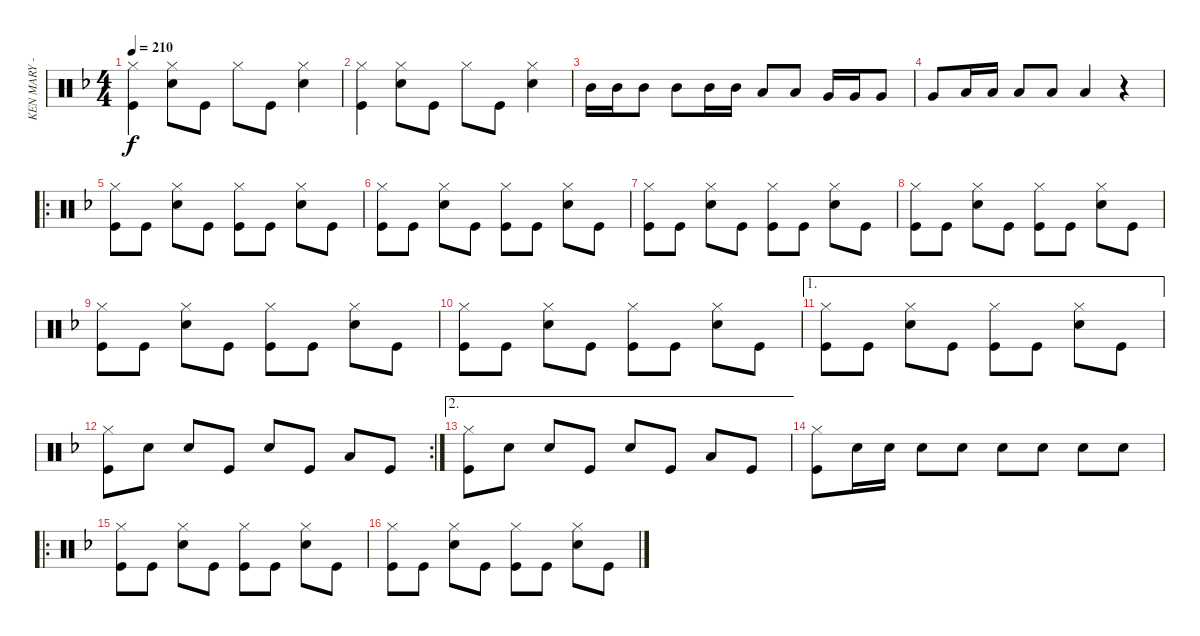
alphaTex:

\track ("KEN MARY - DRUMS" "KEN MARY -") {instrument percussion}
\staff {score}
\articulation defaults
\ts (4 4)
\tempo 210
\clef neutral
\ks f
("Hi-Hat (closed)" "Kick (hit)").4{dy f} ("Hi-Hat (closed)" "Snare (hit) 2").8 "Kick (hit)".8 "Hi-Hat (closed)".8 "Kick (hit)".8 ("Hi-Hat (closed)" "Snare (hit) 2").4 |
("Hi-Hat (closed)" "Kick (hit)").4 ("Hi-Hat (closed)" "Snare (hit) 2").8 "Kick (hit)".8 "Hi-Hat (closed)".8 "Kick (hit)".8 ("Hi-Hat (closed)" "Snare (hit) 2").4 |
"Mid Tom (hit)".16 "Mid Tom (hit)".16 "Mid Tom (hit)".8 "Mid Tom (hit)".8 "Mid Tom (hit)".16 "Mid Tom (hit)".16 "Low Tom (hit)".8 "Low Tom (hit)".8 "Very Low Tom (hit)".16 "Very Low Tom (hit)".16 "Very Low Tom (hit)".8 |
"Very Low Tom (hit)".8 "Low Floor Tom (hit)".16 "Low Floor Tom (hit)".16 "Low Floor Tom (hit)".8 "Low Floor Tom (hit)".8 "Low Floor Tom (hit)".4 r.4 |
\ro
("Hi-Hat (closed)" "Kick (hit)").8 "Kick (hit)".8 ("Hi-Hat (closed)" "Snare (hit) 2").8 "Kick (hit)".8 ("Hi-Hat (closed)" "Kick (hit)").8 "Kick (hit)".8 ("Hi-Hat (closed)" "Snare (hit) 2").8 "Kick (hit)".8 |
("Hi-Hat (closed)" "Kick (hit)").8 "Kick (hit)".8 ("Hi-Hat (closed)" "Snare (hit) 2").8 "Kick (hit)".8 ("Hi-Hat (closed)" "Kick (hit)").8 "Kick (hit)".8 ("Hi-Hat (closed)" "Snare (hit) 2").8 "Kick (hit)".8 |
("Hi-Hat (closed)" "Kick (hit)").8 "Kick (hit)".8 ("Hi-Hat (closed)" "Snare (hit) 2").8 "Kick (hit)".8 ("Hi-Hat (closed)" "Kick (hit)").8 "Kick (hit)".8 ("Hi-Hat (closed)" "Snare (hit) 2").8 "Kick (hit)".8 |
("Hi-Hat (closed)" "Kick (hit)").8 "Kick (hit)".8 ("Hi-Hat (closed)" "Snare (hit) 2").8 "Kick (hit)".8 ("Hi-Hat (closed)" "Kick (hit)").8 "Kick (hit)".8 ("Hi-Hat (closed)" "Snare (hit) 2").8 "Kick (hit)".8 |
("Hi-Hat (closed)" "Kick (hit)").8 "Kick (hit)".8 ("Hi-Hat (closed)" "Snare (hit) 2").8 "Kick (hit)".8 ("Hi-Hat (closed)" "Kick (hit)").8 "Kick (hit)".8 ("Hi-Hat (closed)" "Snare (hit) 2").8 "Kick (hit)".8 |
("Hi-Hat (closed)" "Kick (hit)").8 "Kick (hit)".8 ("Hi-Hat (closed)" "Snare (hit) 2").8 "Kick (hit)".8 ("Hi-Hat (closed)" "Kick (hit)").8 "Kick (hit)".8 ("Hi-Hat (closed)" "Snare (hit) 2").8 "Kick (hit)".8 |
\ae 1
("Hi-Hat (closed)" "Kick (hit)").8 "Kick (hit)".8 ("Hi-Hat (closed)" "Snare (hit) 2").8 "Kick (hit)".8 ("Hi-Hat (closed)" "Kick (hit)").8 "Kick (hit)".8 ("Hi-Hat (closed)" "Snare (hit) 2").8 "Kick (hit)".8 |
\rc 2
("Hi-Hat (closed)" "Kick (hit)").8 "Snare (hit) 2".8 "Snare (hit) 2".8 "Kick (hit)".8 "Snare (hit) 2".8 "Kick (hit)".8 "Low Tom (hit)".8 "Kick (hit)".8 |
\ae 2
("Hi-Hat (closed)" "Kick (hit)").8 "Snare (hit) 2".8 "Snare (hit) 2".8 "Kick (hit)".8 "Snare (hit) 2".8 "Kick (hit)".8 "Low Tom (hit)".8 "Kick (hit)".8 |
("Hi-Hat (closed)" "Kick (hit)").8 "Snare (hit) 2".16 "Snare (hit) 2".16 "Snare (hit) 2".8 "Snare (hit) 2".8 "Snare (hit) 2".8 "Snare (hit) 2".8 "Snare (hit) 2".8 "Snare (hit) 2".8 |
\ro
("Hi-Hat (closed)" "Kick (hit)").8 "Kick (hit)".8 ("Hi-Hat (closed)" "Snare (hit) 2").8 "Kick (hit)".8 ("Hi-Hat (closed)" "Kick (hit)").8 "Kick (hit)".8 ("Hi-Hat (closed)" "Snare (hit) 2").8 "Kick (hit)".8 |
("Hi-Hat (closed)" "Kick (hit)").8 "Kick (hit)".8 ("Hi-Hat (closed)" "Snare (hit) 2").8 "Kick (hit)".8 ("Hi-Hat (closed)" "Kick (hit)").8 "Kick (hit)".8 ("Hi-Hat (closed)" "Snare (hit) 2").8 "Kick (hit)".8
